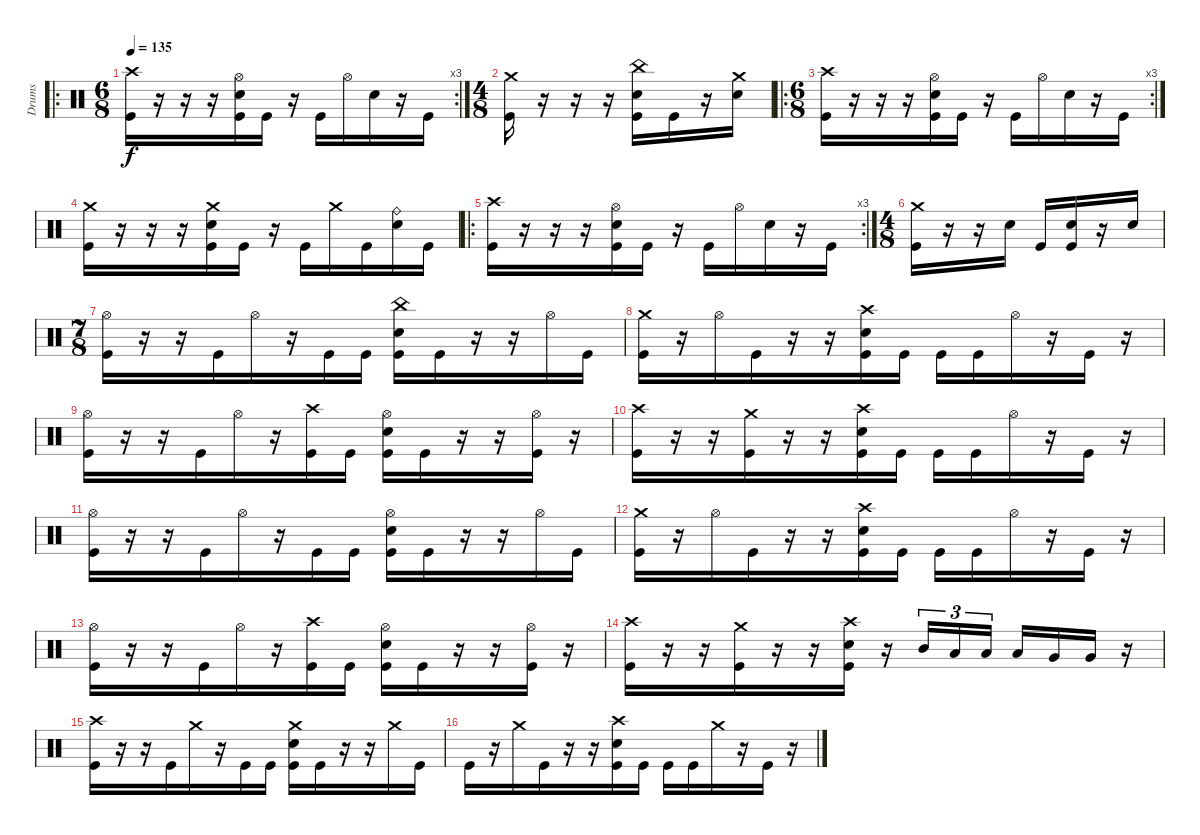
\track ("Drums" "Drums") {instrument percussion}
\staff {score}
\articulation defaults
\ro
\rc 3
\ts (6 8)
\tempo 135
\clef neutral
\ks c
("Crash high (hit)" "Kick (hit)").16{dy f} r.16 r.16 r.16 ("Hi-Hat (open)" "Snare (hit) 2" "Kick (hit)").16 "Kick (hit)".16 r.16 "Kick (hit)".16 "Hi-Hat (open)".16 "Snare (hit) 2".16 r.16 "Kick (hit)".16 |
\ts (4 8)
("Crash medium (hit)" "Kick (hit)").16 r.16 r.16 r.16 ("China (hit)" "Snare (hit) 2" "Kick (hit)").16 "Kick (hit)".16 r.16 ("Crash medium (hit)" "Snare (hit) 2").16 |
\ro
\rc 3
\ts (6 8)
("Crash high (hit)" "Kick (hit)").16 r.16 r.16 r.16 ("Hi-Hat (open)" "Snare (hit) 2" "Kick (hit)").16 "Kick (hit)".16 r.16 "Kick (hit)".16 "Hi-Hat (open)".16 "Snare (hit) 2".16 r.16 "Kick (hit)".16 |
("Crash medium (hit)" "Kick (hit)").16 r.16 r.16 r.16 ("Crash medium (hit)" "Snare (hit) 2" "Kick (hit)").16 "Kick (hit)".16 r.16 "Kick (hit)".16 "Crash medium (hit)".16 "Kick (hit)".16 ("Ride (bell)" "Snare (hit) 2").16 "Kick (hit)".16 |
\ro
\rc 3
("Crash high (hit)" "Kick (hit)").16 r.16 r.16 r.16 ("Hi-Hat (open)" "Snare (hit) 2" "Kick (hit)").16 "Kick (hit)".16 r.16 "Kick (hit)".16 "Hi-Hat (open)".16 "Snare (hit) 2".16 r.16 "Kick (hit)".16 |
\ts (4 8)
("Crash medium (hit)" "Kick (hit)").16 r.16 r.16 "Snare (hit) 2".16 "Kick (hit)".16 ("Snare (hit) 2" "Kick (hit)").16 r.16 "Snare (hit) 2".16 |
\ts (7 8)
("Hi-Hat (open)" "Kick (hit)").16 r.16 r.16 "Kick (hit)".16 "Hi-Hat (open)".16 r.16 "Kick (hit)".16 "Kick (hit)".16 ("China (hit)" "Snare (hit) 2" "Kick (hit)").16 "Kick (hit)".16 r.16 r.16 "Hi-Hat (open)".16 "Kick (hit)".16 |
("Crash medium (hit)" "Kick (hit)").16 r.16 "Hi-Hat (open)".16 "Kick (hit)".16 r.16 r.16 ("Crash high (hit)" "Snare (hit) 2" "Kick (hit)").16 "Kick (hit)".16 "Kick (hit)".16 "Kick (hit)".16 "Hi-Hat (open)".16 r.16 "Kick (hit)".16 r.16 |
("Hi-Hat (open)" "Kick (hit)").16 r.16 r.16 "Kick (hit)".16 "Hi-Hat (open)".16 r.16 ("Crash high (hit)" "Kick (hit)").16 "Kick (hit)".16 ("Hi-Hat (open)" "Snare (hit) 2" "Kick (hit)").16 "Kick (hit)".16 r.16 r.16 ("Hi-Hat (open)" "Kick (hit)").16 r.16 |
("Crash high (hit)" "Kick (hit)").16 r.16 r.16 ("Crash medium (hit)" "Kick (hit)").16 r.16 r.16 ("Crash high (hit)" "Snare (hit) 2" "Kick (hit)").16 "Kick (hit)".16 "Kick (hit)".16 "Kick (hit)".16 "Hi-Hat (open)".16 r.16 "Kick (hit)".16 r.16 |
("Hi-Hat (open)" "Kick (hit)").16 r.16 r.16 "Kick (hit)".16 "Hi-Hat (open)".16 r.16 "Kick (hit)".16 "Kick (hit)".16 ("Hi-Hat (open)" "Snare (hit) 2" "Kick (hit)").16 "Kick (hit)".16 r.16 r.16 "Hi-Hat (open)".16 "Kick (hit)".16 |
("Crash medium (hit)" "Kick (hit)").16 r.16 "Hi-Hat (open)".16 "Kick (hit)".16 r.16 r.16 ("Crash high (hit)" "Snare (hit) 2" "Kick (hit)").16 "Kick (hit)".16 "Kick (hit)".16 "Kick (hit)".16 "Hi-Hat (open)".16 r.16 "Kick (hit)".16 r.16 |
("Hi-Hat (open)" "Kick (hit)").16 r.16 r.16 "Kick (hit)".16 "Hi-Hat (open)".16 r.16 ("Crash high (hit)" "Kick (hit)").16 "Kick (hit)".16 ("Hi-Hat (open)" "Snare (hit) 2" "Kick (hit)").16 "Kick (hit)".16 r.16 r.16 ("Hi-Hat (open)" "Kick (hit)").16 r.16 |
("Crash high (hit)" "Kick (hit)").16 r.16 r.16 ("Crash medium (hit)" "Kick (hit)").16 r.16 r.16 ("Crash high (hit)" "Snare (hit) 2" "Kick (hit)").16 r.16 "Mid Tom (hit)".16{tu (3 2)} "Low Tom (hit)".16{tu (3 2)} "Low Tom (hit)".16{tu (3 2)} "Low Tom (hit)".16 "Very Low Tom (hit)".16 "Very Low Tom (hit)".16 r.16 |
("Crash high (hit)" "Kick (hit)").16 r.16 r.16 "Kick (hit)".16 "Crash medium (hit)".16 r.16 "Kick (hit)".16 "Kick (hit)".16 ("Crash medium (hit)" "Snare (hit) 2" "Kick (hit)").16 "Kick (hit)".16 r.16 r.16 "Crash medium (hit)".16 "Kick (hit)".16 |
"Kick (hit)".16 r.16 "Crash medium (hit)".16 "Kick (hit)".16 r.16 r.16 ("Crash high (hit)" "Snare (hit) 2" "Kick (hit)").16 "Kick (hit)".16 "Kick (hit)".16 "Kick (hit)".16 "Crash medium (hit)".16 r.16 "Kick (hit)".16 r.16
